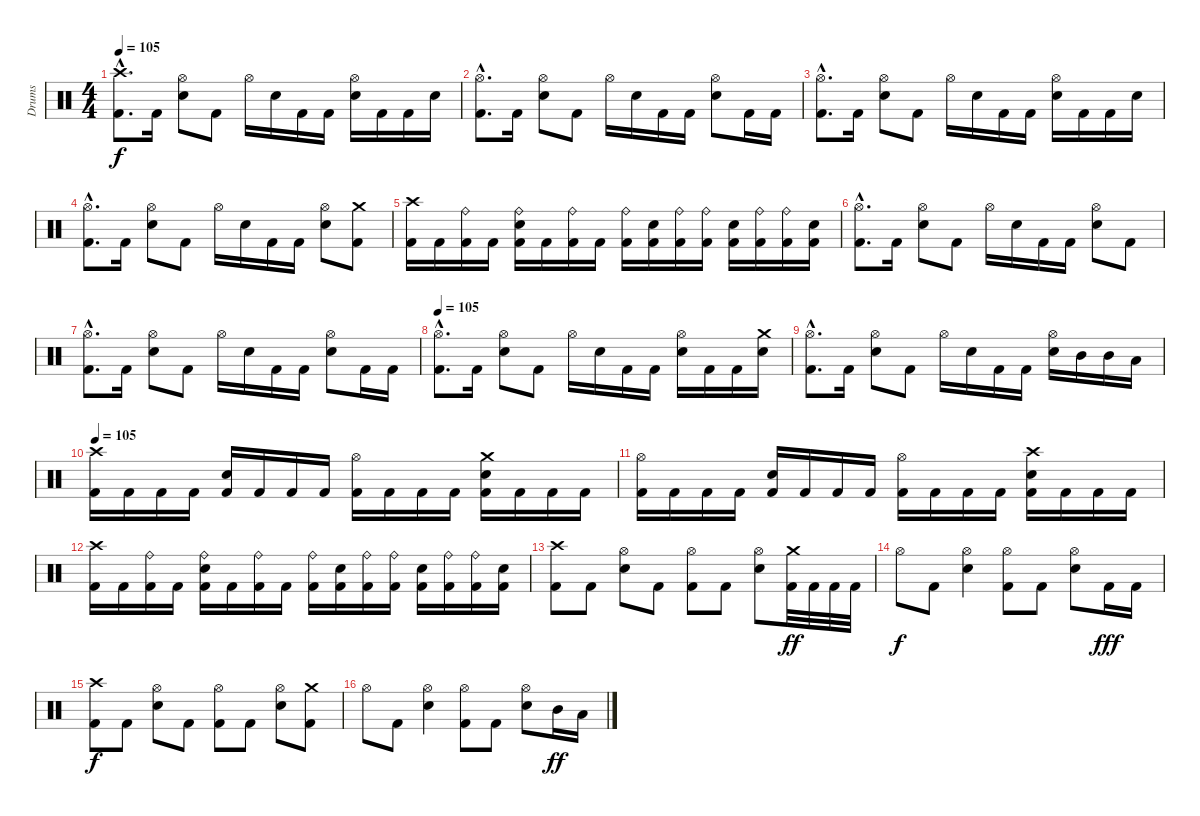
\track ("Drums" "Drums") {instrument percussion}
\staff {score}
\articulation defaults
\ts (4 4)
\tempo 105
\clef neutral
\ks c
("Crash high (hit)"{hac} "Kick (hit) 2"{hac}).8{d dy f} "Kick (hit) 2".16 ("Hi-Hat (open)" "Electric Snare (hit)").8 "Kick (hit) 2".8 "Hi-Hat (open)".16 "Electric Snare (hit)".16 "Kick (hit) 2".16 "Kick (hit) 2".16 ("Hi-Hat (open)" "Electric Snare (hit)").16 "Kick (hit) 2".16 "Kick (hit) 2".16 "Electric Snare (hit)".16 |
("Hi-Hat (open)"{hac} "Kick (hit) 2"{hac}).8{d} "Kick (hit) 2".16 ("Hi-Hat (open)" "Electric Snare (hit)").8 "Kick (hit) 2".8 "Hi-Hat (open)".16 "Electric Snare (hit)".16 "Kick (hit) 2".16 "Kick (hit) 2".16 ("Hi-Hat (open)" "Electric Snare (hit)").8 "Kick (hit) 2".16 "Kick (hit) 2".16 |
("Hi-Hat (open)"{hac} "Kick (hit) 2"{hac}).8{d} "Kick (hit) 2".16 ("Hi-Hat (open)" "Electric Snare (hit)").8 "Kick (hit) 2".8 "Hi-Hat (open)".16 "Electric Snare (hit)".16 "Kick (hit) 2".16 "Kick (hit) 2".16 ("Hi-Hat (open)" "Electric Snare (hit)").16 "Kick (hit) 2".16 "Kick (hit) 2".16 "Electric Snare (hit)".16 |
("Hi-Hat (open)"{hac} "Kick (hit) 2"{hac}).8{d} "Kick (hit) 2".16 ("Hi-Hat (open)" "Electric Snare (hit)").8 "Kick (hit) 2".8 "Hi-Hat (open)".16 "Electric Snare (hit)".16 "Kick (hit) 2".16 "Kick (hit) 2".16 ("Hi-Hat (open)" "Electric Snare (hit)").8 ("Crash medium (hit)" "Kick (hit) 2").8 |
("Crash high (hit)" "Kick (hit) 2").16 "Kick (hit) 2".16 ("Ride (bell)" "Kick (hit) 2").16 "Kick (hit) 2".16 ("Ride (bell)" "Electric Snare (hit)" "Kick (hit) 2").16 "Kick (hit) 2".16 ("Ride (bell)" "Kick (hit) 2").16 "Kick (hit) 2".16 ("Ride (bell)" "Kick (hit) 2").16 ("Electric Snare (hit)" "Kick (hit) 2").16 ("Ride (bell)" "Kick (hit) 2").16 ("Ride (bell)" "Kick (hit) 2").16 ("Electric Snare (hit)" "Kick (hit) 2").16 ("Ride (bell)" "Kick (hit) 2").16 ("Ride (bell)" "Kick (hit) 2").16 ("Electric Snare (hit)" "Kick (hit) 2").16 |
("Hi-Hat (open)"{hac} "Kick (hit) 2"{hac}).8{d} "Kick (hit) 2".16 ("Hi-Hat (open)" "Electric Snare (hit)").8 "Kick (hit) 2".8 "Hi-Hat (open)".16 "Electric Snare (hit)".16 "Kick (hit) 2".16 "Kick (hit) 2".16 ("Hi-Hat (open)" "Electric Snare (hit)").8 "Kick (hit) 2".8 |
("Hi-Hat (open)"{hac} "Kick (hit) 2"{hac}).8{d} "Kick (hit) 2".16 ("Hi-Hat (open)" "Electric Snare (hit)").8 "Kick (hit) 2".8 "Hi-Hat (open)".16 "Electric Snare (hit)".16 "Kick (hit) 2".16 "Kick (hit) 2".16 ("Hi-Hat (open)" "Electric Snare (hit)").8 "Kick (hit) 2".16 "Kick (hit) 2".16 |
\tempo 105
("Hi-Hat (open)"{hac} "Kick (hit) 2"{hac}).8{d} "Kick (hit) 2".16 ("Hi-Hat (open)" "Electric Snare (hit)").8 "Kick (hit) 2".8 "Hi-Hat (open)".16 "Electric Snare (hit)".16 "Kick (hit) 2".16 "Kick (hit) 2".16 ("Hi-Hat (open)" "Electric Snare (hit)").16 "Kick (hit) 2".16 "Kick (hit) 2".16 ("Crash medium (hit)" "Electric Snare (hit)").16 |
("Hi-Hat (open)"{hac} "Kick (hit) 2"{hac}).8{d} "Kick (hit) 2".16 ("Hi-Hat (open)" "Electric Snare (hit)").8 "Kick (hit) 2".8 "Hi-Hat (open)".16 "Electric Snare (hit)".16 "Kick (hit) 2".16 "Kick (hit) 2".16 ("Hi-Hat (open)" "Electric Snare (hit)").16 "Mid Tom (hit)".16 "Mid Tom (hit)".16 "Low Tom (hit)".16 |
\tempo 105
("Crash high (hit)" "Kick (hit) 2").16 "Kick (hit) 2".16 "Kick (hit) 2".16 "Kick (hit) 2".16 ("Electric Snare (hit)" "Kick (hit) 2").16 "Kick (hit) 2".16 "Kick (hit) 2".16 "Kick (hit) 2".16 ("Hi-Hat (open)" "Kick (hit) 2").16 "Kick (hit) 2".16 "Kick (hit) 2".16 "Kick (hit) 2".16 ("Electric Snare (hit)" "Crash medium (hit)" "Kick (hit) 2").16 "Kick (hit) 2".16 "Kick (hit) 2".16 "Kick (hit) 2".16 |
("Hi-Hat (open)" "Kick (hit) 2").16 "Kick (hit) 2".16 "Kick (hit) 2".16 "Kick (hit) 2".16 ("Electric Snare (hit)" "Kick (hit) 2").16 "Kick (hit) 2".16 "Kick (hit) 2".16 "Kick (hit) 2".16 ("Hi-Hat (open)" "Kick (hit) 2").16 "Kick (hit) 2".16 "Kick (hit) 2".16 "Kick (hit) 2".16 ("Electric Snare (hit)" "Crash high (hit)" "Kick (hit) 2").16 "Kick (hit) 2".16 "Kick (hit) 2".16 "Kick (hit) 2".16 |
("Crash high (hit)" "Kick (hit) 2").16 "Kick (hit) 2".16 ("Ride (bell)" "Kick (hit) 2").16 "Kick (hit) 2".16 ("Ride (bell)" "Electric Snare (hit)" "Kick (hit) 2").16 "Kick (hit) 2".16 ("Ride (bell)" "Kick (hit) 2").16 "Kick (hit) 2".16 ("Ride (bell)" "Kick (hit) 2").16 ("Electric Snare (hit)" "Kick (hit) 2").16 ("Ride (bell)" "Kick (hit) 2").16 ("Ride (bell)" "Kick (hit) 2").16 ("Electric Snare (hit)" "Kick (hit) 2").16 ("Ride (bell)" "Kick (hit) 2").16 ("Ride (bell)" "Kick (hit) 2").16 ("Electric Snare (hit)" "Kick (hit) 2").16 |
("Crash high (hit)" "Kick (hit) 2").8 "Kick (hit) 2".8 ("Hi-Hat (open)" "Electric Snare (hit)").8 "Kick (hit) 2".8 ("Hi-Hat (open)" "Kick (hit) 2").8 "Kick (hit) 2".8 ("Hi-Hat (open)" "Electric Snare (hit)").8 ("Crash medium (hit)" "Kick (hit) 2").32{dy ff} "Kick (hit) 2".32 "Kick (hit) 2".32 "Kick (hit) 2".32 |
"Hi-Hat (open)".8{dy f} "Kick (hit) 2".8 ("Hi-Hat (open)" "Electric Snare (hit)").4 ("Hi-Hat (open)" "Kick (hit) 2").8 "Kick (hit) 2".8 ("Hi-Hat (open)" "Electric Snare (hit)").8 "Kick (hit) 2".16{dy fff} "Kick (hit) 2".16 |
("Crash high (hit)" "Kick (hit) 2").8{dy f} "Kick (hit) 2".8 ("Hi-Hat (open)" "Electric Snare (hit)").8 "Kick (hit) 2".8 ("Hi-Hat (open)" "Kick (hit) 2").8 "Kick (hit) 2".8 ("Hi-Hat (open)" "Electric Snare (hit)").8 ("Crash medium (hit)" "Kick (hit) 2").8 |
"Hi-Hat (open)".8 "Kick (hit) 2".8 ("Hi-Hat (open)" "Electric Snare (hit)").4 ("Hi-Hat (open)" "Kick (hit) 2").8 "Kick (hit) 2".8 ("Hi-Hat (open)" "Electric Snare (hit)").8 "Mid Tom (hit)".16{dy ff} "Low Tom (hit)".16
